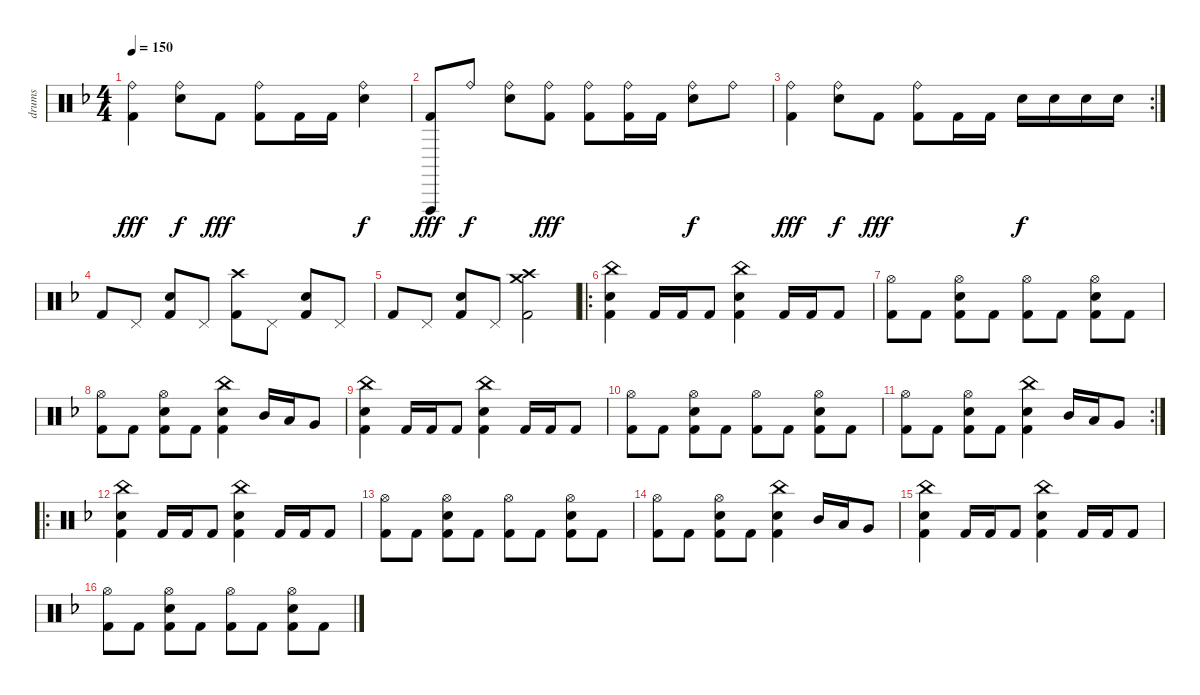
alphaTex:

\track ("drums" "drums") {instrument percussion}
\staff {score}
\articulation defaults
\ts (4 4)
\tempo 150
\clef neutral
\ks dminor
("Ride (bell)" "Kick (hit) 2").4{dy fff} ("Ride (bell)" "Electric Snare (hit)").8{dy f} "Kick (hit) 2".8{dy fff} ("Ride (bell)" "Kick (hit) 2").8 "Kick (hit) 2".16 "Kick (hit) 2".16 ("Ride (bell)" "Electric Snare (hit)").4{dy f} |
("Vibraslap (hit)" "Kick (hit) 2").8{dy fff} "Ride (bell)".8{dy f} ("Ride (bell)" "Electric Snare (hit)").8 ("Ride (bell)" "Kick (hit) 2").8{dy fff} ("Ride (bell)" "Kick (hit) 2").8 ("Ride (bell)" "Kick (hit) 2").16 "Kick (hit) 2".16 ("Ride (bell)" "Electric Snare (hit)").8{dy f} "Ride (bell)".8 |
\rc 2
("Ride (bell)" "Kick (hit) 2").4{dy fff} ("Ride (bell)" "Electric Snare (hit)").8{dy f} "Kick (hit) 2".8{dy fff} ("Ride (bell)" "Kick (hit) 2").8 "Kick (hit) 2".16 "Kick (hit) 2".16 "Electric Snare (hit)".16{dy f} "Electric Snare (hit)".16 "Electric Snare (hit)".16 "Electric Snare (hit)".16 |
"Kick (hit) 2".8 "Pedal Hi-Hat (hit)".8 ("Electric Snare (hit)" "Kick (hit) 2").8 "Pedal Hi-Hat (hit)".8 ("Crash high (hit)" "Kick (hit) 2").8 "Pedal Hi-Hat (hit)".8 ("Electric Snare (hit)" "Kick (hit) 2").8 "Pedal Hi-Hat (hit)".8 |
"Kick (hit) 2".8 "Pedal Hi-Hat (hit)".8 ("Electric Snare (hit)" "Kick (hit) 2").8 "Pedal Hi-Hat (hit)".8 ("Crash medium (hit)" "Crash high (hit)" "Kick (hit) 2").2 |
\ro
("China (hit)" "Electric Snare (hit)" "Kick (hit) 2").4 "Kick (hit) 2".16 "Kick (hit) 2".16 "Kick (hit) 2".8 ("China (hit)" "Electric Snare (hit)" "Kick (hit) 2").4 "Kick (hit) 2".16 "Kick (hit) 2".16 "Kick (hit) 2".8 |
("Hi-Hat (open)" "Kick (hit) 2").8 "Kick (hit) 2".8 ("Hi-Hat (open)" "Electric Snare (hit)" "Kick (hit) 2").8 "Kick (hit) 2".8 ("Hi-Hat (open)" "Kick (hit) 2").8 "Kick (hit) 2".8 ("Hi-Hat (open)" "Electric Snare (hit)" "Kick (hit) 2").8 "Kick (hit) 2".8 |
("Hi-Hat (open)" "Kick (hit) 2").8 "Kick (hit) 2".8 ("Hi-Hat (open)" "Electric Snare (hit)" "Kick (hit) 2").8 "Kick (hit) 2".8 ("China (hit)" "Electric Snare (hit)" "Kick (hit) 2").4 "Mid Tom (hit)".16 "Low Tom (hit)".16 "Very Low Tom (hit)".8 |
("China (hit)" "Electric Snare (hit)" "Kick (hit) 2").4 "Kick (hit) 2".16 "Kick (hit) 2".16 "Kick (hit) 2".8 ("China (hit)" "Electric Snare (hit)" "Kick (hit) 2").4 "Kick (hit) 2".16 "Kick (hit) 2".16 "Kick (hit) 2".8 |
("Hi-Hat (open)" "Kick (hit) 2").8 "Kick (hit) 2".8 ("Hi-Hat (open)" "Electric Snare (hit)" "Kick (hit) 2").8 "Kick (hit) 2".8 ("Hi-Hat (open)" "Kick (hit) 2").8 "Kick (hit) 2".8 ("Hi-Hat (open)" "Electric Snare (hit)" "Kick (hit) 2").8 "Kick (hit) 2".8 |
\rc 2
("Hi-Hat (open)" "Kick (hit) 2").8 "Kick (hit) 2".8 ("Hi-Hat (open)" "Electric Snare (hit)" "Kick (hit) 2").8 "Kick (hit) 2".8 ("China (hit)" "Electric Snare (hit)" "Kick (hit) 2").4 "Mid Tom (hit)".16 "Low Tom (hit)".16 "Very Low Tom (hit)".8 |
\ro
("China (hit)" "Electric Snare (hit)" "Kick (hit) 2").4 "Kick (hit) 2".16 "Kick (hit) 2".16 "Kick (hit) 2".8 ("China (hit)" "Electric Snare (hit)" "Kick (hit) 2").4 "Kick (hit) 2".16 "Kick (hit) 2".16 "Kick (hit) 2".8 |
("Hi-Hat (open)" "Kick (hit) 2").8 "Kick (hit) 2".8 ("Hi-Hat (open)" "Electric Snare (hit)" "Kick (hit) 2").8 "Kick (hit) 2".8 ("Hi-Hat (open)" "Kick (hit) 2").8 "Kick (hit) 2".8 ("Hi-Hat (open)" "Electric Snare (hit)" "Kick (hit) 2").8 "Kick (hit) 2".8 |
("Hi-Hat (open)" "Kick (hit) 2").8 "Kick (hit) 2".8 ("Hi-Hat (open)" "Electric Snare (hit)" "Kick (hit) 2").8 "Kick (hit) 2".8 ("China (hit)" "Electric Snare (hit)" "Kick (hit) 2").4 "Mid Tom (hit)".16 "Low Tom (hit)".16 "Very Low Tom (hit)".8 |
("China (hit)" "Electric Snare (hit)" "Kick (hit) 2").4 "Kick (hit) 2".16 "Kick (hit) 2".16 "Kick (hit) 2".8 ("China (hit)" "Electric Snare (hit)" "Kick (hit) 2").4 "Kick (hit) 2".16 "Kick (hit) 2".16 "Kick (hit) 2".8 |
("Hi-Hat (open)" "Kick (hit) 2").8 "Kick (hit) 2".8 ("Hi-Hat (open)" "Electric Snare (hit)" "Kick (hit) 2").8 "Kick (hit) 2".8 ("Hi-Hat (open)" "Kick (hit) 2").8 "Kick (hit) 2".8 ("Hi-Hat (open)" "Electric Snare (hit)" "Kick (hit) 2").8 "Kick (hit) 2".8
